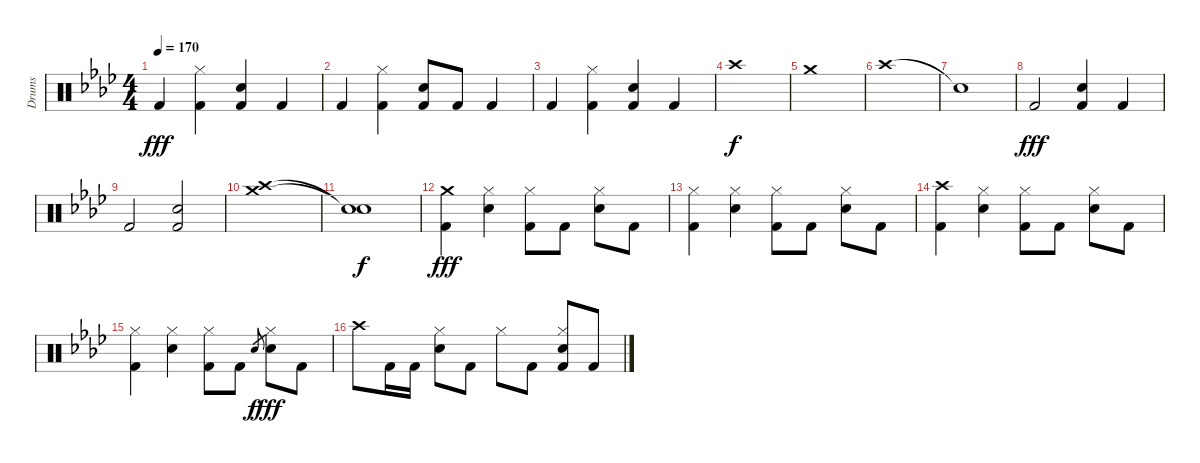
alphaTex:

\track ("Drums" "Drums") {instrument percussion}
\staff {score}
\articulation defaults
\ts (4 4)
\tempo 170
\clef neutral
\ks fminor "Kick (hit) 2".4{dy fff}
("Hi-Hat (closed)" "Kick (hit) 2").4 ("Snare (hit) 2" "Kick (hit) 2").4 "Kick (hit) 2".4 |
"Kick (hit) 2".4 ("Hi-Hat (closed)" "Kick (hit) 2").4 ("Snare (hit) 2" "Kick (hit) 2").8 "Kick (hit) 2".8 "Kick (hit) 2".4 |
"Kick (hit) 2".4 ("Hi-Hat (closed)" "Kick (hit) 2").4 ("Snare (hit) 2" "Kick (hit) 2").4 "Kick (hit) 2".4 |
"Crash high (hit)".1{dy f} |
"Crash medium (hit)".1 |
"Crash high (hit)".1 |
"Snare (hit)"{t}.1 |
"Kick (hit) 2".2{dy fff} ("Snare (hit) 2" "Kick (hit) 2").4 "Kick (hit) 2".4 |
"Kick (hit) 2".2 ("Snare (hit) 2" "Kick (hit) 2").2 |
("Crash medium (hit)" "Crash high (hit)").1 |
("Snare (hit)"{t} "Snare (hit)"{t}).1{dy f} |
("Crash medium (hit)" "Kick (hit) 2").4{dy fff} ("Hi-Hat (closed)" "Snare (hit) 2").4 ("Hi-Hat (closed)" "Kick (hit) 2").8 "Kick (hit) 2".8 ("Hi-Hat (closed)" "Snare (hit) 2").8 "Kick (hit) 2".8 |
("Hi-Hat (closed)" "Kick (hit) 2").4 ("Hi-Hat (closed)" "Snare (hit) 2").4 ("Hi-Hat (closed)" "Kick (hit) 2").8 "Kick (hit) 2".8 ("Hi-Hat (closed)" "Snare (hit) 2").8 "Kick (hit) 2".8 |
("Crash high (hit)" "Kick (hit) 2").4 ("Hi-Hat (closed)" "Snare (hit) 2").4 ("Hi-Hat (closed)" "Kick (hit) 2").8 "Kick (hit) 2".8 ("Hi-Hat (closed)" "Snare (hit) 2").8 "Kick (hit) 2".8 |
("Hi-Hat (closed)" "Kick (hit) 2").4 ("Hi-Hat (closed)" "Snare (hit) 2").4 ("Hi-Hat (closed)" "Kick (hit) 2").8 "Kick (hit) 2".8 "Snare (hit) 2".8{gr dy f} ("Hi-Hat (closed)" "Snare (hit) 2").8{dy fff} "Kick (hit) 2".8 |
"Crash high (hit)".8 "Kick (hit) 2".16 "Kick (hit) 2".16 ("Hi-Hat (closed)" "Snare (hit) 2").8 "Kick (hit) 2".8 "Hi-Hat (closed)".8 "Kick (hit) 2".8 ("Hi-Hat (closed)" "Snare (hit) 2" "Kick (hit) 2").8 "Kick (hit) 2".8
